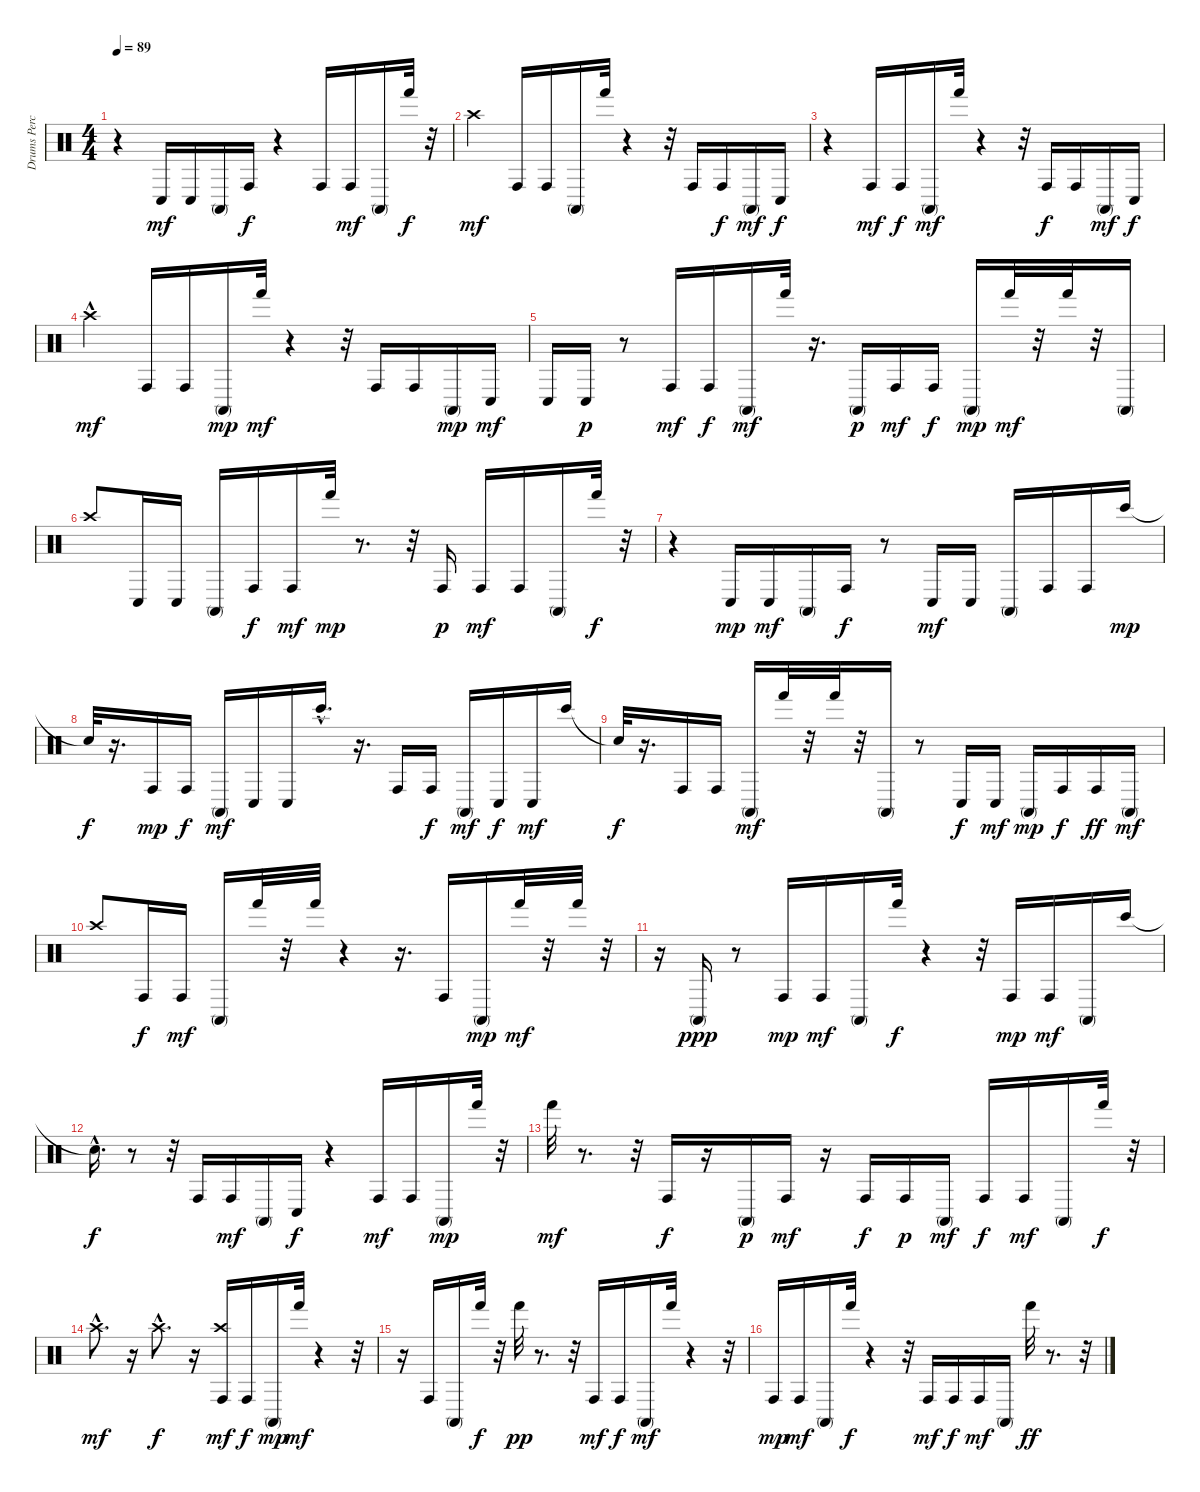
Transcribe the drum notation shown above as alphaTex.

\track ("Drums Percussion" "Drums Perc") {instrument percussion}
\staff {score}
\articulation defaults
\ts (4 4)
\tempo 89
\clef neutral
\ks c
r.4{dy mf} "Conga low (hit)".16 "Conga low (hit)".16 "Conga high (mute)".16 "Conga high (hit)".16{dy f} r.4 "Conga high (hit)".16 "Conga high (hit)".16{dy mf} "Conga high (mute)".16 "Hand (hit)".32{dy f} r.32 |
"Crash high (hit)".4{dy mf} "Conga high (hit)".16 "Conga high (hit)".16 "Conga high (mute)".16 "Hand (hit)".32 r.4 r.32 "Conga high (hit)".16 "Conga high (hit)".16{dy f} "Conga high (mute)".16{dy mf} "Conga low (hit)".16{dy f} |
r.4 "Conga high (hit)".16{dy mf} "Conga high (hit)".16{dy f} "Conga high (mute)".16{dy mf} "Hand (hit)".32 r.4 r.32 "Conga high (hit)".16{dy f} "Conga high (hit)".16 "Conga high (mute)".16{dy mf} "Conga low (hit)".16{dy f} |
"Crash high (hit)"{hac}.4{dy mf} "Conga high (hit)".16 "Conga high (hit)".16 "Conga high (mute)".16{dy mp} "Hand (hit)".32{dy mf} r.4 r.32 "Conga high (hit)".16 "Conga high (hit)".16 "Conga high (mute)".16{dy mp} "Conga low (hit)".16{dy mf} |
"Conga low (hit)".16 "Conga low (hit)".16{dy p} r.8 "Conga high (hit)".16{dy mf} "Conga high (hit)".16{dy f} "Conga high (mute)".16{dy mf} "Hand (hit)".32 r.16{d} "Conga high (mute)".16{dy p} "Conga high (hit)".16{dy mf} "Conga high (hit)".16{dy f} "Conga high (mute)".16{dy mp} "Hand (hit)".32{dy mf} r.32 "Hand (hit)".32 r.32 "Conga high (mute)".16 |
"Crash high (hit)".8 "Conga low (hit)".16 "Conga low (hit)".16 "Conga high (mute)".16 "Conga high (hit)".16{dy f} "Conga high (hit)".16{dy mf} "Hand (hit)".32{dy mp} r.8{d} r.32 "Conga high (hit)".16{dy p} "Conga high (hit)".16{dy mf} "Conga high (hit)".16 "Conga high (mute)".16 "Hand (hit)".32{dy f} r.32 |
r.4 "Conga low (hit)".16{dy mp} "Conga low (hit)".16{dy mf} "Conga high (mute)".16 "Conga high (hit)".16{dy f} r.8 "Conga low (hit)".16{dy mf} "Conga low (hit)".16 "Conga high (mute)".16 "Conga high (hit)".16 "Conga high (hit)".16 "Bongo High (hit)".16{dy mp} |
"Snare (hit)"{t}.32{dy f} r.16{d} "Conga high (hit)".16{dy mp} "Conga high (hit)".16{dy f} "Conga high (mute)".16{dy mf} "Conga low (hit)".16 "Conga low (hit)".16 "Bongo High (hit)"{hac}.16{d} r.16{d} "Conga high (hit)".16 "Conga high (hit)".16{dy f} "Conga high (mute)".16{dy mf} "Conga low (hit)".16{dy f} "Conga low (hit)".16{dy mf} "Bongo High (hit)".16 |
"Snare (hit)"{t}.32{dy f} r.16{d} "Conga high (hit)".16 "Conga high (hit)".16 "Conga high (mute)".16{dy mf} "Hand (hit)".32 r.32 "Hand (hit)".32 r.32 "Conga high (mute)".16 r.8 "Conga low (hit)".16{dy f} "Conga low (hit)".16{dy mf} "Conga high (mute)".16{dy mp} "Conga high (hit)".16{dy f} "Conga high (hit)".16{dy ff} "Conga high (mute)".16{dy mf} |
"Crash high (hit)".8 "Conga high (hit)".16{dy f} "Conga high (hit)".16{dy mf} "Conga high (mute)".16 "Hand (hit)".32 r.32 "Hand (hit)".32 r.4 r.16{d} "Conga high (hit)".16 "Conga high (mute)".16{dy mp} "Hand (hit)".32{dy mf} r.32 "Hand (hit)".32 r.32 |
r.16 "Conga high (mute)".16{dy ppp} r.8 "Conga high (hit)".16{dy mp} "Conga high (hit)".16{dy mf} "Conga high (mute)".16 "Hand (hit)".32{dy f} r.4 r.32 "Conga high (hit)".16{dy mp} "Conga high (hit)".16{dy mf} "Conga high (mute)".16 "Bongo High (hit)".16 |
"Snare (hit)"{hac t}.16{d dy f} r.8 r.32 "Conga high (hit)".16 "Conga high (hit)".16{dy mf} "Conga high (mute)".16 "Conga low (hit)".16{dy f} r.4 "Conga high (hit)".16{dy mf} "Conga high (hit)".16 "Conga high (mute)".16{dy mp} "Hand (hit)".32 r.32 |
"Hand (hit)".32{dy mf} r.8{d} r.32 "Conga high (hit)".16{dy f} r.16 "Conga high (mute)".16{dy p} "Conga high (hit)".16{dy mf} r.16 "Conga high (hit)".16{dy f} "Conga high (hit)".16{dy p} "Conga high (mute)".16{dy mf} "Conga high (hit)".16{dy f} "Conga high (hit)".16{dy mf} "Conga high (mute)".16 "Hand (hit)".32{dy f} r.32 |
"Crash high (hit)"{hac}.8{d dy mf} r.16 "Crash high (hit)"{hac}.8{d dy f} r.16 ("Conga high (hit)" "Crash high (hit)").16{dy mf} "Conga high (hit)".16{dy f} "Conga high (mute)".16{dy mp} "Hand (hit)".32{dy mf} r.4 r.32 |
r.16 "Conga high (hit)".16 "Conga high (mute)".16 "Hand (hit)".32{dy f} r.32 "Hand (hit)".32{dy pp} r.8{d} r.32 "Conga high (hit)".16{dy mf} "Conga high (hit)".16{dy f} "Conga high (mute)".16{dy mf} "Hand (hit)".32 r.4 r.32 |
"Conga high (hit)".16{dy mp} "Conga high (hit)".16{dy mf} "Conga high (mute)".16 "Hand (hit)".32{dy f} r.4 r.32 "Conga high (hit)".16{dy mf} "Conga high (hit)".16{dy f} "Conga high (hit)".16{dy mf} "Conga high (mute)".16 "Hand (hit)".32{dy ff} r.8{d} r.32
